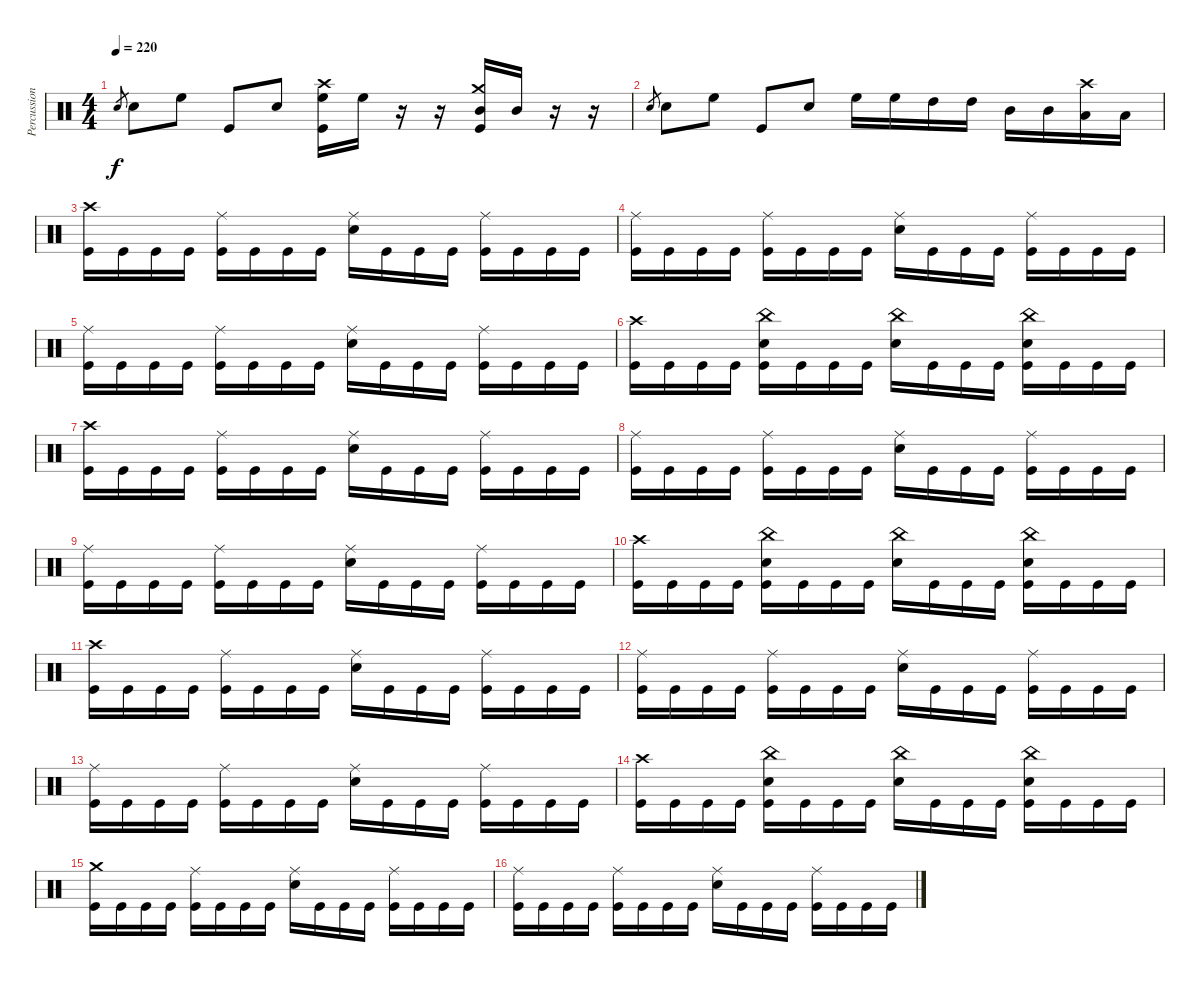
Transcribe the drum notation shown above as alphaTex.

\track ("Percussions" "Percussion") {instrument percussion}
\staff {score}
\articulation defaults
\ts (4 4)
\tempo 220
\clef neutral
\ks c "Electric Snare (hit)".8{gr dy f} "Electric Snare (hit)".8 "High Floor Tom (hit)".8 "Kick (hit)".8 "Electric Snare (hit)".8
("Crash high (hit)" "High Floor Tom (hit)" "Kick (hit)").16 "High Floor Tom (hit)".16 r.16 r.16 ("Crash medium (hit)" "Mid Tom (hit)" "Kick (hit)").16 "Mid Tom (hit)".16 r.16 r.16 |
"Electric Snare (hit)".8{gr} "Electric Snare (hit)".8 "High Floor Tom (hit)".8 "Kick (hit)".8 "Electric Snare (hit)".8 "High Floor Tom (hit)".16 "High Floor Tom (hit)".16 "High Tom (hit)".16 "High Tom (hit)".16 "Mid Tom (hit)".16 "Mid Tom (hit)".16 ("Crash high (hit)" "Low Tom (hit)").16 "Low Tom (hit)".16 |
("Crash high (hit)" "Kick (hit)").16 "Kick (hit)".16 "Kick (hit)".16 "Kick (hit)".16 ("Ride (middle)" "Kick (hit)").16 "Kick (hit)".16 "Kick (hit)".16 "Kick (hit)".16 ("Ride (middle)" "Electric Snare (hit)").16 "Kick (hit)".16 "Kick (hit)".16 "Kick (hit)".16 ("Ride (middle)" "Kick (hit)").16 "Kick (hit)".16 "Kick (hit)".16 "Kick (hit)".16 |
("Ride (middle)" "Kick (hit)").16 "Kick (hit)".16 "Kick (hit)".16 "Kick (hit)".16 ("Ride (middle)" "Kick (hit)").16 "Kick (hit)".16 "Kick (hit)".16 "Kick (hit)".16 ("Ride (middle)" "Electric Snare (hit)").16 "Kick (hit)".16 "Kick (hit)".16 "Kick (hit)".16 ("Ride (middle)" "Kick (hit)").16 "Kick (hit)".16 "Kick (hit)".16 "Kick (hit)".16 |
("Ride (middle)" "Kick (hit)").16 "Kick (hit)".16 "Kick (hit)".16 "Kick (hit)".16 ("Ride (middle)" "Kick (hit)").16 "Kick (hit)".16 "Kick (hit)".16 "Kick (hit)".16 ("Ride (middle)" "Electric Snare (hit)").16 "Kick (hit)".16 "Kick (hit)".16 "Kick (hit)".16 ("Ride (middle)" "Kick (hit)").16 "Kick (hit)".16 "Kick (hit)".16 "Kick (hit)".16 |
("Crash high (hit)" "Kick (hit)").16 "Kick (hit)".16 "Kick (hit)".16 "Kick (hit)".16 ("China (hit)" "Electric Snare (hit)" "Kick (hit)").16 "Kick (hit)".16 "Kick (hit)".16 "Kick (hit)".16 ("China (hit)" "Electric Snare (hit)").16 "Kick (hit)".16 "Kick (hit)".16 "Kick (hit)".16 ("China (hit)" "Electric Snare (hit)" "Kick (hit)").16 "Kick (hit)".16 "Kick (hit)".16 "Kick (hit)".16 |
("Crash high (hit)" "Kick (hit)").16 "Kick (hit)".16 "Kick (hit)".16 "Kick (hit)".16 ("Ride (middle)" "Kick (hit)").16 "Kick (hit)".16 "Kick (hit)".16 "Kick (hit)".16 ("Ride (middle)" "Electric Snare (hit)").16 "Kick (hit)".16 "Kick (hit)".16 "Kick (hit)".16 ("Ride (middle)" "Kick (hit)").16 "Kick (hit)".16 "Kick (hit)".16 "Kick (hit)".16 |
("Ride (middle)" "Kick (hit)").16 "Kick (hit)".16 "Kick (hit)".16 "Kick (hit)".16 ("Ride (middle)" "Kick (hit)").16 "Kick (hit)".16 "Kick (hit)".16 "Kick (hit)".16 ("Ride (middle)" "Electric Snare (hit)").16 "Kick (hit)".16 "Kick (hit)".16 "Kick (hit)".16 ("Ride (middle)" "Kick (hit)").16 "Kick (hit)".16 "Kick (hit)".16 "Kick (hit)".16 |
("Ride (middle)" "Kick (hit)").16 "Kick (hit)".16 "Kick (hit)".16 "Kick (hit)".16 ("Ride (middle)" "Kick (hit)").16 "Kick (hit)".16 "Kick (hit)".16 "Kick (hit)".16 ("Ride (middle)" "Electric Snare (hit)").16 "Kick (hit)".16 "Kick (hit)".16 "Kick (hit)".16 ("Ride (middle)" "Kick (hit)").16 "Kick (hit)".16 "Kick (hit)".16 "Kick (hit)".16 |
("Crash high (hit)" "Kick (hit)").16 "Kick (hit)".16 "Kick (hit)".16 "Kick (hit)".16 ("China (hit)" "Electric Snare (hit)" "Kick (hit)").16 "Kick (hit)".16 "Kick (hit)".16 "Kick (hit)".16 ("China (hit)" "Electric Snare (hit)").16 "Kick (hit)".16 "Kick (hit)".16 "Kick (hit)".16 ("China (hit)" "Electric Snare (hit)" "Kick (hit)").16 "Kick (hit)".16 "Kick (hit)".16 "Kick (hit)".16 |
("Crash high (hit)" "Kick (hit)").16 "Kick (hit)".16 "Kick (hit)".16 "Kick (hit)".16 ("Ride (middle)" "Kick (hit)").16 "Kick (hit)".16 "Kick (hit)".16 "Kick (hit)".16 ("Ride (middle)" "Electric Snare (hit)").16 "Kick (hit)".16 "Kick (hit)".16 "Kick (hit)".16 ("Ride (middle)" "Kick (hit)").16 "Kick (hit)".16 "Kick (hit)".16 "Kick (hit)".16 |
("Ride (middle)" "Kick (hit)").16 "Kick (hit)".16 "Kick (hit)".16 "Kick (hit)".16 ("Ride (middle)" "Kick (hit)").16 "Kick (hit)".16 "Kick (hit)".16 "Kick (hit)".16 ("Ride (middle)" "Electric Snare (hit)").16 "Kick (hit)".16 "Kick (hit)".16 "Kick (hit)".16 ("Ride (middle)" "Kick (hit)").16 "Kick (hit)".16 "Kick (hit)".16 "Kick (hit)".16 |
("Ride (middle)" "Kick (hit)").16 "Kick (hit)".16 "Kick (hit)".16 "Kick (hit)".16 ("Ride (middle)" "Kick (hit)").16 "Kick (hit)".16 "Kick (hit)".16 "Kick (hit)".16 ("Ride (middle)" "Electric Snare (hit)").16 "Kick (hit)".16 "Kick (hit)".16 "Kick (hit)".16 ("Ride (middle)" "Kick (hit)").16 "Kick (hit)".16 "Kick (hit)".16 "Kick (hit)".16 |
("Crash high (hit)" "Kick (hit)").16 "Kick (hit)".16 "Kick (hit)".16 "Kick (hit)".16 ("China (hit)" "Electric Snare (hit)" "Kick (hit)").16 "Kick (hit)".16 "Kick (hit)".16 "Kick (hit)".16 ("China (hit)" "Electric Snare (hit)").16 "Kick (hit)".16 "Kick (hit)".16 "Kick (hit)".16 ("China (hit)" "Electric Snare (hit)" "Kick (hit)").16 "Kick (hit)".16 "Kick (hit)".16 "Kick (hit)".16 |
("Crash medium (hit)" "Kick (hit)").16 "Kick (hit)".16 "Kick (hit)".16 "Kick (hit)".16 ("Ride (middle)" "Kick (hit)").16 "Kick (hit)".16 "Kick (hit)".16 "Kick (hit)".16 ("Ride (middle)" "Electric Snare (hit)").16 "Kick (hit)".16 "Kick (hit)".16 "Kick (hit)".16 ("Ride (middle)" "Kick (hit)").16 "Kick (hit)".16 "Kick (hit)".16 "Kick (hit)".16 |
("Ride (middle)" "Kick (hit)").16 "Kick (hit)".16 "Kick (hit)".16 "Kick (hit)".16 ("Ride (middle)" "Kick (hit)").16 "Kick (hit)".16 "Kick (hit)".16 "Kick (hit)".16 ("Ride (middle)" "Electric Snare (hit)").16 "Kick (hit)".16 "Kick (hit)".16 "Kick (hit)".16 ("Ride (middle)" "Kick (hit)").16 "Kick (hit)".16 "Kick (hit)".16 "Kick (hit)".16
